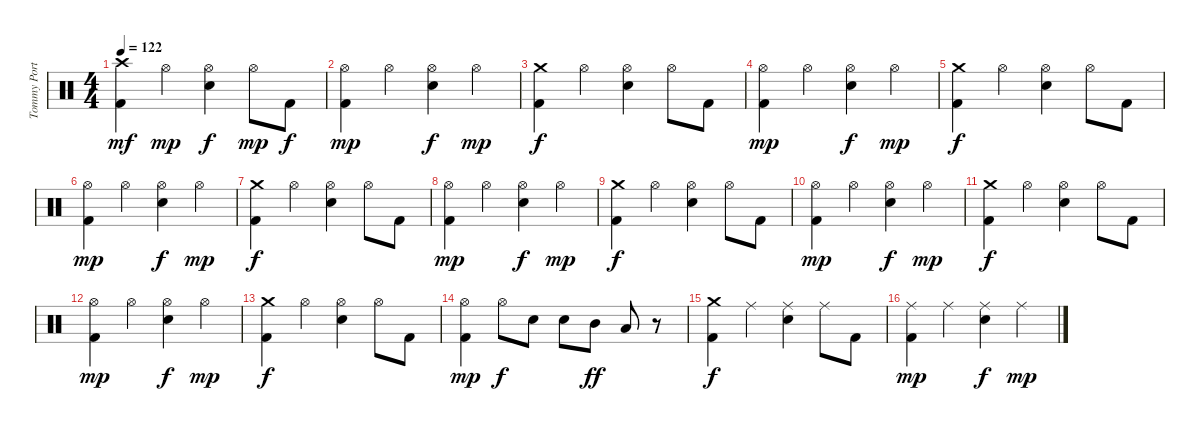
\track ("Tommy Portino" "Tommy Port") {instrument percussion}
\staff {score}
\articulation defaults
\ts (4 4)
\tempo 122
\clef neutral
\ks c
("Crash high (hit)" "Kick (hit) 2").4{dy mf} "Hi-Hat (open)".4{dy mp} ("Hi-Hat (open)" "Snare (hit) 2").4{dy f} "Hi-Hat (open)".8{dy mp} "Kick (hit) 2".8{dy f} |
("Hi-Hat (open)" "Kick (hit) 2").4{dy mp} "Hi-Hat (open)".4 ("Hi-Hat (open)" "Snare (hit) 2").4{dy f} "Hi-Hat (open)".4{dy mp} |
("Crash medium (hit)" "Kick (hit) 2").4{dy f} "Hi-Hat (open)".4 ("Hi-Hat (open)" "Snare (hit) 2").4 "Hi-Hat (open)".8 "Kick (hit) 2".8 |
("Hi-Hat (open)" "Kick (hit) 2").4{dy mp} "Hi-Hat (open)".4 ("Hi-Hat (open)" "Snare (hit) 2").4{dy f} "Hi-Hat (open)".4{dy mp} |
("Crash medium (hit)" "Kick (hit) 2").4{dy f} "Hi-Hat (open)".4 ("Hi-Hat (open)" "Snare (hit) 2").4 "Hi-Hat (open)".8 "Kick (hit) 2".8 |
("Hi-Hat (open)" "Kick (hit) 2").4{dy mp} "Hi-Hat (open)".4 ("Hi-Hat (open)" "Snare (hit) 2").4{dy f} "Hi-Hat (open)".4{dy mp} |
("Crash medium (hit)" "Kick (hit) 2").4{dy f} "Hi-Hat (open)".4 ("Hi-Hat (open)" "Snare (hit) 2").4 "Hi-Hat (open)".8 "Kick (hit) 2".8 |
("Hi-Hat (open)" "Kick (hit) 2").4{dy mp} "Hi-Hat (open)".4 ("Hi-Hat (open)" "Snare (hit) 2").4{dy f} "Hi-Hat (open)".4{dy mp} |
("Crash medium (hit)" "Kick (hit) 2").4{dy f} "Hi-Hat (open)".4 ("Hi-Hat (open)" "Snare (hit) 2").4 "Hi-Hat (open)".8 "Kick (hit) 2".8 |
("Hi-Hat (open)" "Kick (hit) 2").4{dy mp} "Hi-Hat (open)".4 ("Hi-Hat (open)" "Snare (hit) 2").4{dy f} "Hi-Hat (open)".4{dy mp} |
("Crash medium (hit)" "Kick (hit) 2").4{dy f} "Hi-Hat (open)".4 ("Hi-Hat (open)" "Snare (hit) 2").4 "Hi-Hat (open)".8 "Kick (hit) 2".8 |
("Hi-Hat (open)" "Kick (hit) 2").4{dy mp} "Hi-Hat (open)".4 ("Hi-Hat (open)" "Snare (hit) 2").4{dy f} "Hi-Hat (open)".4{dy mp} |
("Crash medium (hit)" "Kick (hit) 2").4{dy f} "Hi-Hat (open)".4 ("Hi-Hat (open)" "Snare (hit) 2").4 "Hi-Hat (open)".8 "Kick (hit) 2".8 |
("Hi-Hat (open)" "Kick (hit) 2").4{dy mp} "Hi-Hat (open)".8{dy f} "Snare (hit) 2".8 "Snare (hit) 2".8 "Mid Tom (hit)".8{dy ff} "Low Tom (hit)".8 r.8 |
("Crash medium (hit)" "Kick (hit) 2").4{dy f} "Ride (middle)".4 ("Ride (middle)" "Snare (hit) 2").4 "Ride (middle)".8 "Kick (hit) 2".8 |
("Ride (middle)" "Kick (hit) 2").4{dy mp} "Ride (middle)".4 ("Ride (middle)" "Snare (hit) 2").4{dy f} "Ride (middle)".4{dy mp}
